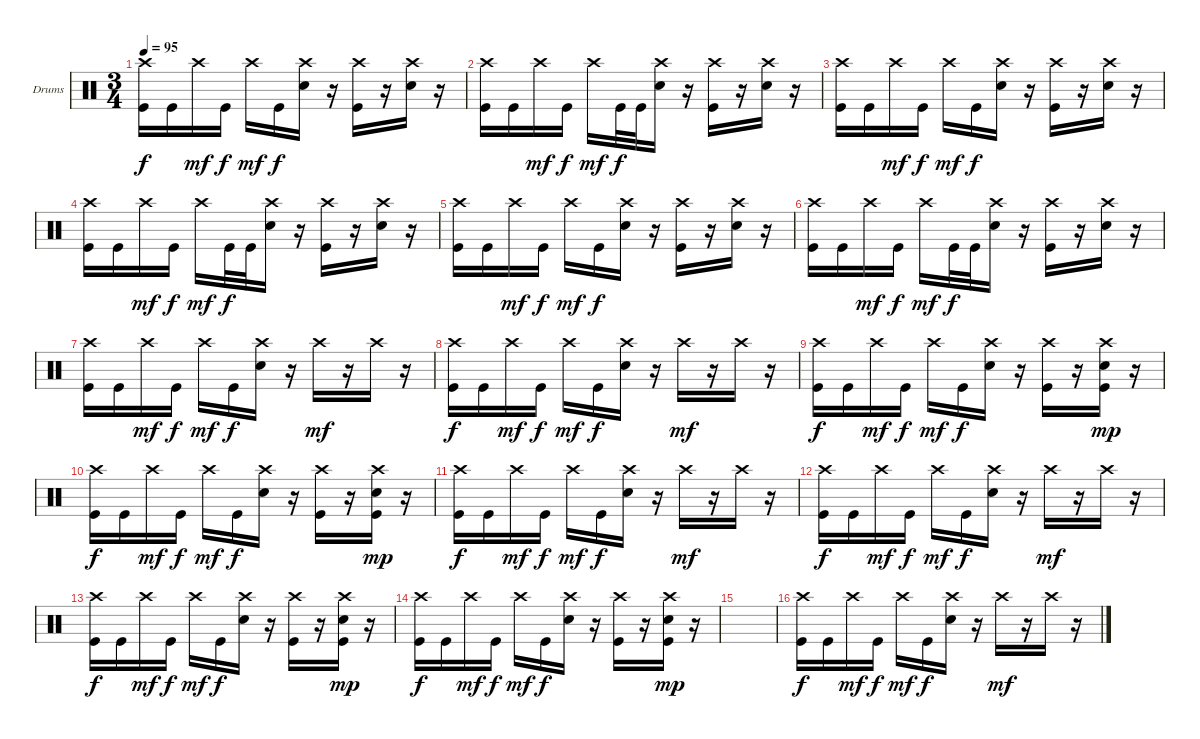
\defaultSystemsLayout 4
\bracketExtendMode groupsimilarinstruments
\firstSystemTrackNameOrientation horizontal
\otherSystemsTrackNameOrientation horizontal
\track ("Drumkit" "Drums") {instrument percussion}
\staff {score}
\articulation defaults
\ts (3 4)
\tempo 95
\clef neutral
\ks c
("Kick (hit)" "Crash high (hit)").16{dy f} "Kick (hit)".16 "Crash high (hit)".16{dy mf} "Kick (hit)".16{dy f} "Crash high (hit)".16{dy mf} "Kick (hit)".16{dy f} ("Snare (hit) 2" "Crash high (hit)").16 r.16 ("Kick (hit)" "Crash high (hit)").16 r.16 ("Snare (hit) 2" "Crash high (hit)").16 r.16 |
("Kick (hit)" "Crash high (hit)").16 "Kick (hit)".16 "Crash high (hit)".16{dy mf} "Kick (hit)".16{dy f} "Crash high (hit)".16{dy mf} "Kick (hit)".32{dy f} "Kick (hit)".32 ("Snare (hit) 2" "Crash high (hit)").16 r.16 ("Kick (hit)" "Crash high (hit)").16 r.16 ("Snare (hit) 2" "Crash high (hit)").16 r.16 |
("Kick (hit)" "Crash high (hit)").16 "Kick (hit)".16 "Crash high (hit)".16{dy mf} "Kick (hit)".16{dy f} "Crash high (hit)".16{dy mf} "Kick (hit)".16{dy f} ("Snare (hit) 2" "Crash high (hit)").16 r.16 ("Kick (hit)" "Crash high (hit)").16 r.16 ("Snare (hit) 2" "Crash high (hit)").16 r.16 |
("Kick (hit)" "Crash high (hit)").16 "Kick (hit)".16 "Crash high (hit)".16{dy mf} "Kick (hit)".16{dy f} "Crash high (hit)".16{dy mf} "Kick (hit)".32{dy f} "Kick (hit)".32 ("Snare (hit) 2" "Crash high (hit)").16 r.16 ("Kick (hit)" "Crash high (hit)").16 r.16 ("Snare (hit) 2" "Crash high (hit)").16 r.16 |
("Kick (hit)" "Crash high (hit)").16 "Kick (hit)".16 "Crash high (hit)".16{dy mf} "Kick (hit)".16{dy f} "Crash high (hit)".16{dy mf} "Kick (hit)".16{dy f} ("Snare (hit) 2" "Crash high (hit)").16 r.16 ("Kick (hit)" "Crash high (hit)").16 r.16 ("Snare (hit) 2" "Crash high (hit)").16 r.16 |
("Kick (hit)" "Crash high (hit)").16 "Kick (hit)".16 "Crash high (hit)".16{dy mf} "Kick (hit)".16{dy f} "Crash high (hit)".16{dy mf} "Kick (hit)".32{dy f} "Kick (hit)".32 ("Snare (hit) 2" "Crash high (hit)").16 r.16 ("Kick (hit)" "Crash high (hit)").16 r.16 ("Snare (hit) 2" "Crash high (hit)").16 r.16 |
("Kick (hit)" "Crash high (hit)").16 "Kick (hit)".16 "Crash high (hit)".16{dy mf} "Kick (hit)".16{dy f} "Crash high (hit)".16{dy mf} "Kick (hit)".16{dy f} ("Snare (hit) 2" "Crash high (hit)").16 r.16 "Crash high (hit)".16{dy mf} r.16 "Crash high (hit)".16 r.16 |
("Kick (hit)" "Crash high (hit)").16{dy f} "Kick (hit)".16 "Crash high (hit)".16{dy mf} "Kick (hit)".16{dy f} "Crash high (hit)".16{dy mf} "Kick (hit)".16{dy f} ("Snare (hit) 2" "Crash high (hit)").16 r.16 "Crash high (hit)".16{dy mf} r.16 "Crash high (hit)".16 r.16 |
("Kick (hit)" "Crash high (hit)").16{dy f} "Kick (hit)".16 "Crash high (hit)".16{dy mf} "Kick (hit)".16{dy f} "Crash high (hit)".16{dy mf} "Kick (hit)".16{dy f} ("Snare (hit) 2" "Crash high (hit)").16 r.16 ("Kick (hit)" "Crash high (hit)").16 r.16 ("Kick (hit)" "Snare (hit) 2" "Crash high (hit)").16{dy mp} r.16 |
("Kick (hit)" "Crash high (hit)").16{dy f} "Kick (hit)".16 "Crash high (hit)".16{dy mf} "Kick (hit)".16{dy f} "Crash high (hit)".16{dy mf} "Kick (hit)".16{dy f} ("Snare (hit) 2" "Crash high (hit)").16 r.16 ("Kick (hit)" "Crash high (hit)").16 r.16 ("Kick (hit)" "Snare (hit) 2" "Crash high (hit)").16{dy mp} r.16 |
("Kick (hit)" "Crash high (hit)").16{dy f} "Kick (hit)".16 "Crash high (hit)".16{dy mf} "Kick (hit)".16{dy f} "Crash high (hit)".16{dy mf} "Kick (hit)".16{dy f} ("Snare (hit) 2" "Crash high (hit)").16 r.16 "Crash high (hit)".16{dy mf} r.16 "Crash high (hit)".16 r.16 |
("Kick (hit)" "Crash high (hit)").16{dy f} "Kick (hit)".16 "Crash high (hit)".16{dy mf} "Kick (hit)".16{dy f} "Crash high (hit)".16{dy mf} "Kick (hit)".16{dy f} ("Snare (hit) 2" "Crash high (hit)").16 r.16 "Crash high (hit)".16{dy mf} r.16 "Crash high (hit)".16 r.16 |
("Kick (hit)" "Crash high (hit)").16{dy f} "Kick (hit)".16 "Crash high (hit)".16{dy mf} "Kick (hit)".16{dy f} "Crash high (hit)".16{dy mf} "Kick (hit)".16{dy f} ("Snare (hit) 2" "Crash high (hit)").16 r.16 ("Kick (hit)" "Crash high (hit)").16 r.16 ("Kick (hit)" "Snare (hit) 2" "Crash high (hit)").16{dy mp} r.16 |
("Kick (hit)" "Crash high (hit)").16{dy f} "Kick (hit)".16 "Crash high (hit)".16{dy mf} "Kick (hit)".16{dy f} "Crash high (hit)".16{dy mf} "Kick (hit)".16{dy f} ("Snare (hit) 2" "Crash high (hit)").16 r.16 ("Kick (hit)" "Crash high (hit)").16 r.16 ("Kick (hit)" "Snare (hit) 2" "Crash high (hit)").16{dy mp} r.16 |
|
("Kick (hit)" "Crash high (hit)").16{dy f} "Kick (hit)".16 "Crash high (hit)".16{dy mf} "Kick (hit)".16{dy f} "Crash high (hit)".16{dy mf} "Kick (hit)".16{dy f} ("Snare (hit) 2" "Crash high (hit)").16 r.16 "Crash high (hit)".16{dy mf} r.16 "Crash high (hit)".16 r.16
